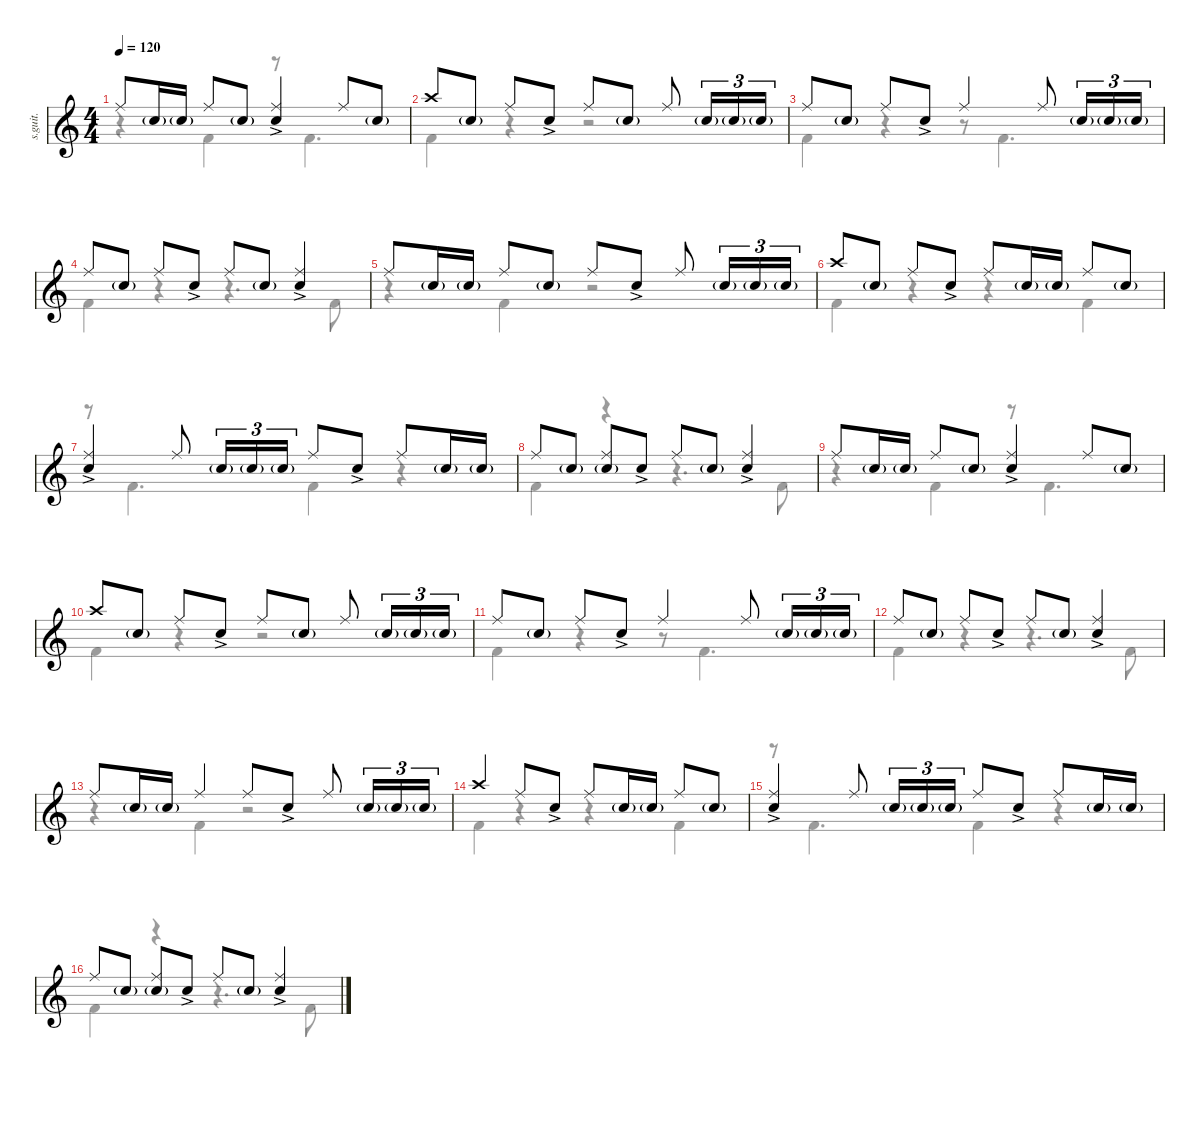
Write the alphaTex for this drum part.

\defaultSystemsLayout 4
\hideDynamics
\bracketExtendMode nobrackets
\track ("Matt Halpern" "s.guit.") {instrument percussion}
\staff {score}
\articulation defaults
\voice
\ts (4 4)
\tempo 120
\clef g2
\ks c "Ride (middle)".8{lyrics (0 "") lyrics (1 "") lyrics (2 "") lyrics (3 "") lyrics (4 "") dy mf} "Snare (hit) 2"{g}.16{lyrics (0 "") lyrics (1 "") lyrics (2 "") lyrics (3 "") lyrics (4 "")} "Snare (hit) 2"{g}.16{lyrics (0 "") lyrics (1 "") lyrics (2 "") lyrics (3 "") lyrics (4 "")} "Ride (middle)".8{lyrics (0 "") lyrics (1 "") lyrics (2 "") lyrics (3 "") lyrics (4 "")} "Snare (hit) 2"{g}.8{lyrics (0 "") lyrics (1 "") lyrics (2 "") lyrics (3 "") lyrics (4 "")}
("Snare (hit) 2"{ac} "Ride (middle)").4{lyrics (0 "") lyrics (1 "") lyrics (2 "") lyrics (3 "") lyrics (4 "")} "Ride (middle)".8{lyrics (0 "") lyrics (1 "") lyrics (2 "") lyrics (3 "") lyrics (4 "")} "Snare (hit) 2"{g}.8{lyrics (0 "") lyrics (1 "") lyrics (2 "") lyrics (3 "") lyrics (4 "")} |
"Crash high (hit)".8{lyrics (0 "") lyrics (1 "") lyrics (2 "") lyrics (3 "") lyrics (4 "")} "Snare (hit) 2"{g}.8{lyrics (0 "") lyrics (1 "") lyrics (2 "") lyrics (3 "") lyrics (4 "")} "Ride (middle)".8{lyrics (0 "") lyrics (1 "") lyrics (2 "") lyrics (3 "") lyrics (4 "")} "Snare (hit) 2"{ac}.8{lyrics (0 "") lyrics (1 "") lyrics (2 "") lyrics (3 "") lyrics (4 "")} "Ride (middle)".8{lyrics (0 "") lyrics (1 "") lyrics (2 "") lyrics (3 "") lyrics (4 "")} "Snare (hit) 2"{g}.8{lyrics (0 "") lyrics (1 "") lyrics (2 "") lyrics (3 "") lyrics (4 "")} "Ride (middle)".8{lyrics (0 "") lyrics (1 "") lyrics (2 "") lyrics (3 "") lyrics (4 "")} "Snare (hit) 2"{g}.16{tu (3 2) lyrics (0 "") lyrics (1 "") lyrics (2 "") lyrics (3 "") lyrics (4 "")} "Snare (hit) 2"{g}.16{tu (3 2) lyrics (0 "") lyrics (1 "") lyrics (2 "") lyrics (3 "") lyrics (4 "")} "Snare (hit) 2"{g}.16{tu (3 2) lyrics (0 "") lyrics (1 "") lyrics (2 "") lyrics (3 "") lyrics (4 "")} |
"Ride (middle)".8{lyrics (0 "") lyrics (1 "") lyrics (2 "") lyrics (3 "") lyrics (4 "")} "Snare (hit) 2"{g}.8{lyrics (0 "") lyrics (1 "") lyrics (2 "") lyrics (3 "") lyrics (4 "")} "Ride (middle)".8{lyrics (0 "") lyrics (1 "") lyrics (2 "") lyrics (3 "") lyrics (4 "")} "Snare (hit) 2"{ac}.8{lyrics (0 "") lyrics (1 "") lyrics (2 "") lyrics (3 "") lyrics (4 "")} "Ride (middle)".4{lyrics (0 "") lyrics (1 "") lyrics (2 "") lyrics (3 "") lyrics (4 "")} "Ride (middle)".8{lyrics (0 "") lyrics (1 "") lyrics (2 "") lyrics (3 "") lyrics (4 "")} "Snare (hit) 2"{g}.16{tu (3 2) lyrics (0 "") lyrics (1 "") lyrics (2 "") lyrics (3 "") lyrics (4 "")} "Snare (hit) 2"{g}.16{tu (3 2) lyrics (0 "") lyrics (1 "") lyrics (2 "") lyrics (3 "") lyrics (4 "")} "Snare (hit) 2"{g}.16{tu (3 2) lyrics (0 "") lyrics (1 "") lyrics (2 "") lyrics (3 "") lyrics (4 "")} |
"Ride (middle)".8{lyrics (0 "") lyrics (1 "") lyrics (2 "") lyrics (3 "") lyrics (4 "")} "Snare (hit) 2"{g}.8{lyrics (0 "") lyrics (1 "") lyrics (2 "") lyrics (3 "") lyrics (4 "")} "Ride (middle)".8{lyrics (0 "") lyrics (1 "") lyrics (2 "") lyrics (3 "") lyrics (4 "")} "Snare (hit) 2"{ac}.8{lyrics (0 "") lyrics (1 "") lyrics (2 "") lyrics (3 "") lyrics (4 "")} "Ride (middle)".8{lyrics (0 "") lyrics (1 "") lyrics (2 "") lyrics (3 "") lyrics (4 "")} "Snare (hit) 2"{g}.8{lyrics (0 "") lyrics (1 "") lyrics (2 "") lyrics (3 "") lyrics (4 "")} ("Snare (hit) 2"{ac} "Ride (middle)").4{lyrics (0 "") lyrics (1 "") lyrics (2 "") lyrics (3 "") lyrics (4 "")} |
"Ride (middle)".8{lyrics (0 "") lyrics (1 "") lyrics (2 "") lyrics (3 "") lyrics (4 "")} "Snare (hit) 2"{g}.16{lyrics (0 "") lyrics (1 "") lyrics (2 "") lyrics (3 "") lyrics (4 "")} "Snare (hit) 2"{g}.16{lyrics (0 "") lyrics (1 "") lyrics (2 "") lyrics (3 "") lyrics (4 "")} "Ride (middle)".8{lyrics (0 "") lyrics (1 "") lyrics (2 "") lyrics (3 "") lyrics (4 "")} "Snare (hit) 2"{g}.8{lyrics (0 "") lyrics (1 "") lyrics (2 "") lyrics (3 "") lyrics (4 "")} "Ride (middle)".8{lyrics (0 "") lyrics (1 "") lyrics (2 "") lyrics (3 "") lyrics (4 "")} "Snare (hit) 2"{ac}.8{lyrics (0 "") lyrics (1 "") lyrics (2 "") lyrics (3 "") lyrics (4 "")} "Ride (middle)".8{lyrics (0 "") lyrics (1 "") lyrics (2 "") lyrics (3 "") lyrics (4 "")} "Snare (hit) 2"{g}.16{tu (3 2) lyrics (0 "") lyrics (1 "") lyrics (2 "") lyrics (3 "") lyrics (4 "")} "Snare (hit) 2"{g}.16{tu (3 2) lyrics (0 "") lyrics (1 "") lyrics (2 "") lyrics (3 "") lyrics (4 "")} "Snare (hit) 2"{g}.16{tu (3 2) lyrics (0 "") lyrics (1 "") lyrics (2 "") lyrics (3 "") lyrics (4 "")} |
"Crash high (hit)".8{lyrics (0 "") lyrics (1 "") lyrics (2 "") lyrics (3 "") lyrics (4 "")} "Snare (hit) 2"{g}.8{lyrics (0 "") lyrics (1 "") lyrics (2 "") lyrics (3 "") lyrics (4 "")} "Ride (middle)".8{lyrics (0 "") lyrics (1 "") lyrics (2 "") lyrics (3 "") lyrics (4 "")} "Snare (hit) 2"{ac}.8{lyrics (0 "") lyrics (1 "") lyrics (2 "") lyrics (3 "") lyrics (4 "")} "Ride (middle)".8{lyrics (0 "") lyrics (1 "") lyrics (2 "") lyrics (3 "") lyrics (4 "")} "Snare (hit) 2"{g}.16{lyrics (0 "") lyrics (1 "") lyrics (2 "") lyrics (3 "") lyrics (4 "")} "Snare (hit) 2"{g}.16{lyrics (0 "") lyrics (1 "") lyrics (2 "") lyrics (3 "") lyrics (4 "")} "Ride (middle)".8{lyrics (0 "") lyrics (1 "") lyrics (2 "") lyrics (3 "") lyrics (4 "")} "Snare (hit) 2"{g}.8{lyrics (0 "") lyrics (1 "") lyrics (2 "") lyrics (3 "") lyrics (4 "")} |
("Snare (hit) 2"{ac} "Ride (middle)").4{lyrics (0 "") lyrics (1 "") lyrics (2 "") lyrics (3 "") lyrics (4 "")} "Ride (middle)".8{lyrics (0 "") lyrics (1 "") lyrics (2 "") lyrics (3 "") lyrics (4 "")} "Snare (hit) 2"{g}.16{tu (3 2) lyrics (0 "") lyrics (1 "") lyrics (2 "") lyrics (3 "") lyrics (4 "")} "Snare (hit) 2"{g}.16{tu (3 2) lyrics (0 "") lyrics (1 "") lyrics (2 "") lyrics (3 "") lyrics (4 "")} "Snare (hit) 2"{g}.16{tu (3 2) lyrics (0 "") lyrics (1 "") lyrics (2 "") lyrics (3 "") lyrics (4 "")} "Ride (middle)".8{lyrics (0 "") lyrics (1 "") lyrics (2 "") lyrics (3 "") lyrics (4 "")} "Snare (hit) 2"{ac}.8{lyrics (0 "") lyrics (1 "") lyrics (2 "") lyrics (3 "") lyrics (4 "")} "Ride (middle)".8{lyrics (0 "") lyrics (1 "") lyrics (2 "") lyrics (3 "") lyrics (4 "")} "Snare (hit) 2"{g}.16{lyrics (0 "") lyrics (1 "") lyrics (2 "") lyrics (3 "") lyrics (4 "")} "Snare (hit) 2"{g}.16{lyrics (0 "") lyrics (1 "") lyrics (2 "") lyrics (3 "") lyrics (4 "")} |
"Ride (middle)".8{lyrics (0 "") lyrics (1 "") lyrics (2 "") lyrics (3 "") lyrics (4 "")} "Snare (hit) 2"{g}.8{lyrics (0 "") lyrics (1 "") lyrics (2 "") lyrics (3 "") lyrics (4 "")} ("Snare (hit) 2"{g} "Ride (middle)").8{lyrics (0 "") lyrics (1 "") lyrics (2 "") lyrics (3 "") lyrics (4 "")} "Snare (hit) 2"{ac}.8{lyrics (0 "") lyrics (1 "") lyrics (2 "") lyrics (3 "") lyrics (4 "")} "Ride (middle)".8{lyrics (0 "") lyrics (1 "") lyrics (2 "") lyrics (3 "") lyrics (4 "")} "Snare (hit) 2"{g}.8{lyrics (0 "") lyrics (1 "") lyrics (2 "") lyrics (3 "") lyrics (4 "")} ("Snare (hit) 2"{ac} "Ride (middle)").4{lyrics (0 "") lyrics (1 "") lyrics (2 "") lyrics (3 "") lyrics (4 "")} |
"Ride (middle)".8{lyrics (0 "") lyrics (1 "") lyrics (2 "") lyrics (3 "") lyrics (4 "")} "Snare (hit) 2"{g}.16{lyrics (0 "") lyrics (1 "") lyrics (2 "") lyrics (3 "") lyrics (4 "")} "Snare (hit) 2"{g}.16{lyrics (0 "") lyrics (1 "") lyrics (2 "") lyrics (3 "") lyrics (4 "")} "Ride (middle)".8{lyrics (0 "") lyrics (1 "") lyrics (2 "") lyrics (3 "") lyrics (4 "")} "Snare (hit) 2"{g}.8{lyrics (0 "") lyrics (1 "") lyrics (2 "") lyrics (3 "") lyrics (4 "")} ("Snare (hit) 2"{ac} "Ride (middle)").4{lyrics (0 "") lyrics (1 "") lyrics (2 "") lyrics (3 "") lyrics (4 "")} "Ride (middle)".8{lyrics (0 "") lyrics (1 "") lyrics (2 "") lyrics (3 "") lyrics (4 "")} "Snare (hit) 2"{g}.8{lyrics (0 "") lyrics (1 "") lyrics (2 "") lyrics (3 "") lyrics (4 "")} |
"Crash high (hit)".8{lyrics (0 "") lyrics (1 "") lyrics (2 "") lyrics (3 "") lyrics (4 "")} "Snare (hit) 2"{g}.8{lyrics (0 "") lyrics (1 "") lyrics (2 "") lyrics (3 "") lyrics (4 "")} "Ride (middle)".8{lyrics (0 "") lyrics (1 "") lyrics (2 "") lyrics (3 "") lyrics (4 "")} "Snare (hit) 2"{ac}.8{lyrics (0 "") lyrics (1 "") lyrics (2 "") lyrics (3 "") lyrics (4 "")} "Ride (middle)".8{lyrics (0 "") lyrics (1 "") lyrics (2 "") lyrics (3 "") lyrics (4 "")} "Snare (hit) 2"{g}.8{lyrics (0 "") lyrics (1 "") lyrics (2 "") lyrics (3 "") lyrics (4 "")} "Ride (middle)".8{lyrics (0 "") lyrics (1 "") lyrics (2 "") lyrics (3 "") lyrics (4 "")} "Snare (hit) 2"{g}.16{tu (3 2) lyrics (0 "") lyrics (1 "") lyrics (2 "") lyrics (3 "") lyrics (4 "")} "Snare (hit) 2"{g}.16{tu (3 2) lyrics (0 "") lyrics (1 "") lyrics (2 "") lyrics (3 "") lyrics (4 "")} "Snare (hit) 2"{g}.16{tu (3 2) lyrics (0 "") lyrics (1 "") lyrics (2 "") lyrics (3 "") lyrics (4 "")} |
"Ride (middle)".8{lyrics (0 "") lyrics (1 "") lyrics (2 "") lyrics (3 "") lyrics (4 "")} "Snare (hit) 2"{g}.8{lyrics (0 "") lyrics (1 "") lyrics (2 "") lyrics (3 "") lyrics (4 "")} "Ride (middle)".8{lyrics (0 "") lyrics (1 "") lyrics (2 "") lyrics (3 "") lyrics (4 "")} "Snare (hit) 2"{ac}.8{lyrics (0 "") lyrics (1 "") lyrics (2 "") lyrics (3 "") lyrics (4 "")} "Ride (middle)".4{lyrics (0 "") lyrics (1 "") lyrics (2 "") lyrics (3 "") lyrics (4 "")} "Ride (middle)".8{lyrics (0 "") lyrics (1 "") lyrics (2 "") lyrics (3 "") lyrics (4 "")} "Snare (hit) 2"{g}.16{tu (3 2) lyrics (0 "") lyrics (1 "") lyrics (2 "") lyrics (3 "") lyrics (4 "")} "Snare (hit) 2"{g}.16{tu (3 2) lyrics (0 "") lyrics (1 "") lyrics (2 "") lyrics (3 "") lyrics (4 "")} "Snare (hit) 2"{g}.16{tu (3 2) lyrics (0 "") lyrics (1 "") lyrics (2 "") lyrics (3 "") lyrics (4 "")} |
"Ride (middle)".8{lyrics (0 "") lyrics (1 "") lyrics (2 "") lyrics (3 "") lyrics (4 "")} "Snare (hit) 2"{g}.8{lyrics (0 "") lyrics (1 "") lyrics (2 "") lyrics (3 "") lyrics (4 "")} "Ride (middle)".8{lyrics (0 "") lyrics (1 "") lyrics (2 "") lyrics (3 "") lyrics (4 "")} "Snare (hit) 2"{ac}.8{lyrics (0 "") lyrics (1 "") lyrics (2 "") lyrics (3 "") lyrics (4 "")} "Ride (middle)".8{lyrics (0 "") lyrics (1 "") lyrics (2 "") lyrics (3 "") lyrics (4 "")} "Snare (hit) 2"{g}.8{lyrics (0 "") lyrics (1 "") lyrics (2 "") lyrics (3 "") lyrics (4 "")} ("Ride (middle)" "Snare (hit) 2"{ac}).4{lyrics (0 "") lyrics (1 "") lyrics (2 "") lyrics (3 "") lyrics (4 "")} |
"Ride (middle)".8{lyrics (0 "") lyrics (1 "") lyrics (2 "") lyrics (3 "") lyrics (4 "")} "Snare (hit) 2"{g}.16{lyrics (0 "") lyrics (1 "") lyrics (2 "") lyrics (3 "") lyrics (4 "")} "Snare (hit) 2"{g}.16{lyrics (0 "") lyrics (1 "") lyrics (2 "") lyrics (3 "") lyrics (4 "")} "Ride (middle)".4{lyrics (0 "") lyrics (1 "") lyrics (2 "") lyrics (3 "") lyrics (4 "")} "Ride (middle)".8{lyrics (0 "") lyrics (1 "") lyrics (2 "") lyrics (3 "") lyrics (4 "")} "Snare (hit) 2"{ac}.8{lyrics (0 "") lyrics (1 "") lyrics (2 "") lyrics (3 "") lyrics (4 "")} "Ride (middle)".8{lyrics (0 "") lyrics (1 "") lyrics (2 "") lyrics (3 "") lyrics (4 "")} "Snare (hit) 2"{g}.16{tu (3 2) lyrics (0 "") lyrics (1 "") lyrics (2 "") lyrics (3 "") lyrics (4 "")} "Snare (hit) 2"{g}.16{tu (3 2) lyrics (0 "") lyrics (1 "") lyrics (2 "") lyrics (3 "") lyrics (4 "")} "Snare (hit) 2"{g}.16{tu (3 2) lyrics (0 "") lyrics (1 "") lyrics (2 "") lyrics (3 "") lyrics (4 "")} |
"Crash high (hit)".4{lyrics (0 "") lyrics (1 "") lyrics (2 "") lyrics (3 "") lyrics (4 "")} "Ride (middle)".8{lyrics (0 "") lyrics (1 "") lyrics (2 "") lyrics (3 "") lyrics (4 "")} "Snare (hit) 2"{ac}.8{lyrics (0 "") lyrics (1 "") lyrics (2 "") lyrics (3 "") lyrics (4 "")} "Ride (middle)".8{lyrics (0 "") lyrics (1 "") lyrics (2 "") lyrics (3 "") lyrics (4 "")} "Snare (hit) 2"{g}.16{lyrics (0 "") lyrics (1 "") lyrics (2 "") lyrics (3 "") lyrics (4 "")} "Snare (hit) 2"{g}.16{lyrics (0 "") lyrics (1 "") lyrics (2 "") lyrics (3 "") lyrics (4 "")} "Ride (middle)".8{lyrics (0 "") lyrics (1 "") lyrics (2 "") lyrics (3 "") lyrics (4 "")} "Snare (hit) 2"{g}.8{lyrics (0 "") lyrics (1 "") lyrics (2 "") lyrics (3 "") lyrics (4 "")} |
("Snare (hit) 2"{ac} "Ride (middle)").4{lyrics (0 "") lyrics (1 "") lyrics (2 "") lyrics (3 "") lyrics (4 "")} "Ride (middle)".8{lyrics (0 "") lyrics (1 "") lyrics (2 "") lyrics (3 "") lyrics (4 "")} "Snare (hit) 2"{g}.16{tu (3 2) lyrics (0 "") lyrics (1 "") lyrics (2 "") lyrics (3 "") lyrics (4 "")} "Snare (hit) 2"{g}.16{tu (3 2) lyrics (0 "") lyrics (1 "") lyrics (2 "") lyrics (3 "") lyrics (4 "")} "Snare (hit) 2"{g}.16{tu (3 2) lyrics (0 "") lyrics (1 "") lyrics (2 "") lyrics (3 "") lyrics (4 "")} "Ride (middle)".8{lyrics (0 "") lyrics (1 "") lyrics (2 "") lyrics (3 "") lyrics (4 "")} "Snare (hit) 2"{ac}.8{lyrics (0 "") lyrics (1 "") lyrics (2 "") lyrics (3 "") lyrics (4 "")} "Ride (middle)".8{lyrics (0 "") lyrics (1 "") lyrics (2 "") lyrics (3 "") lyrics (4 "")} "Snare (hit) 2"{g}.16{lyrics (0 "") lyrics (1 "") lyrics (2 "") lyrics (3 "") lyrics (4 "")} "Snare (hit) 2"{g}.16{lyrics (0 "") lyrics (1 "") lyrics (2 "") lyrics (3 "") lyrics (4 "")} |
"Ride (middle)".8{lyrics (0 "") lyrics (1 "") lyrics (2 "") lyrics (3 "") lyrics (4 "")} "Snare (hit) 2"{g}.8{lyrics (0 "") lyrics (1 "") lyrics (2 "") lyrics (3 "") lyrics (4 "")} ("Snare (hit) 2"{g} "Ride (middle)").8{lyrics (0 "") lyrics (1 "") lyrics (2 "") lyrics (3 "") lyrics (4 "")} "Snare (hit) 2"{ac}.8{lyrics (0 "") lyrics (1 "") lyrics (2 "") lyrics (3 "") lyrics (4 "")} "Ride (middle)".8{lyrics (0 "") lyrics (1 "") lyrics (2 "") lyrics (3 "") lyrics (4 "")} "Snare (hit) 2"{g}.8{lyrics (0 "") lyrics (1 "") lyrics (2 "") lyrics (3 "") lyrics (4 "")} ("Snare (hit) 2"{ac} "Ride (middle)").4{lyrics (0 "") lyrics (1 "") lyrics (2 "") lyrics (3 "") lyrics (4 "")}
\voice
\clef g2
\ottava regular
\simile none
\ks c
r.4{dy mf} "Kick (hit) 2".4{lyrics (0 "") lyrics (1 "") lyrics (2 "") lyrics (3 "") lyrics (4 "")} r.8 "Kick (hit) 2".4{d lyrics (0 "") lyrics (1 "") lyrics (2 "") lyrics (3 "") lyrics (4 "")} |
"Kick (hit) 2".4{lyrics (0 "") lyrics (1 "") lyrics (2 "") lyrics (3 "") lyrics (4 "")} r.4 r.2 |
"Kick (hit) 2".4{lyrics (0 "") lyrics (1 "") lyrics (2 "") lyrics (3 "") lyrics (4 "")} r.4 r.8 "Kick (hit) 2".4{d lyrics (0 "") lyrics (1 "") lyrics (2 "") lyrics (3 "") lyrics (4 "")} |
"Kick (hit) 2".4{lyrics (0 "") lyrics (1 "") lyrics (2 "") lyrics (3 "") lyrics (4 "")} r.4 r.4{d} "Kick (hit) 2".8{lyrics (0 "") lyrics (1 "") lyrics (2 "") lyrics (3 "") lyrics (4 "")} |
r.4 "Kick (hit) 2".4{lyrics (0 "") lyrics (1 "") lyrics (2 "") lyrics (3 "") lyrics (4 "")} r.2 |
"Kick (hit) 2".4{lyrics (0 "") lyrics (1 "") lyrics (2 "") lyrics (3 "") lyrics (4 "")} r.4 r.4 "Kick (hit) 2".4{lyrics (0 "") lyrics (1 "") lyrics (2 "") lyrics (3 "") lyrics (4 "")} |
r.8 "Kick (hit) 2".4{d lyrics (0 "") lyrics (1 "") lyrics (2 "") lyrics (3 "") lyrics (4 "")} "Kick (hit) 2".4{lyrics (0 "") lyrics (1 "") lyrics (2 "") lyrics (3 "") lyrics (4 "")} r.4 |
"Kick (hit) 2".4{lyrics (0 "") lyrics (1 "") lyrics (2 "") lyrics (3 "") lyrics (4 "")} r.4 r.4{d} "Kick (hit) 2".8{lyrics (0 "") lyrics (1 "") lyrics (2 "") lyrics (3 "") lyrics (4 "")} |
r.4 "Kick (hit) 2".4{lyrics (0 "") lyrics (1 "") lyrics (2 "") lyrics (3 "") lyrics (4 "")} r.8 "Kick (hit) 2".4{d lyrics (0 "") lyrics (1 "") lyrics (2 "") lyrics (3 "") lyrics (4 "")} |
"Kick (hit) 2".4{lyrics (0 "") lyrics (1 "") lyrics (2 "") lyrics (3 "") lyrics (4 "")} r.4 r.2 |
"Kick (hit) 2".4{lyrics (0 "") lyrics (1 "") lyrics (2 "") lyrics (3 "") lyrics (4 "")} r.4 r.8 "Kick (hit) 2".4{d lyrics (0 "") lyrics (1 "") lyrics (2 "") lyrics (3 "") lyrics (4 "")} |
"Kick (hit) 2".4{lyrics (0 "") lyrics (1 "") lyrics (2 "") lyrics (3 "") lyrics (4 "")} r.4 r.4{d} "Kick (hit) 2".8{lyrics (0 "") lyrics (1 "") lyrics (2 "") lyrics (3 "") lyrics (4 "")} |
r.4 "Kick (hit) 2".4{lyrics (0 "") lyrics (1 "") lyrics (2 "") lyrics (3 "") lyrics (4 "")} r.2 |
"Kick (hit) 2".4{lyrics (0 "") lyrics (1 "") lyrics (2 "") lyrics (3 "") lyrics (4 "")} r.4 r.4 "Kick (hit) 2".4{lyrics (0 "") lyrics (1 "") lyrics (2 "") lyrics (3 "") lyrics (4 "")} |
r.8 "Kick (hit) 2".4{d lyrics (0 "") lyrics (1 "") lyrics (2 "") lyrics (3 "") lyrics (4 "")} "Kick (hit) 2".4{lyrics (0 "") lyrics (1 "") lyrics (2 "") lyrics (3 "") lyrics (4 "")} r.4 |
"Kick (hit) 2".4{lyrics (0 "") lyrics (1 "") lyrics (2 "") lyrics (3 "") lyrics (4 "")} r.4 r.4{d} "Kick (hit) 2".8{lyrics (0 "") lyrics (1 "") lyrics (2 "") lyrics (3 "") lyrics (4 "")}
